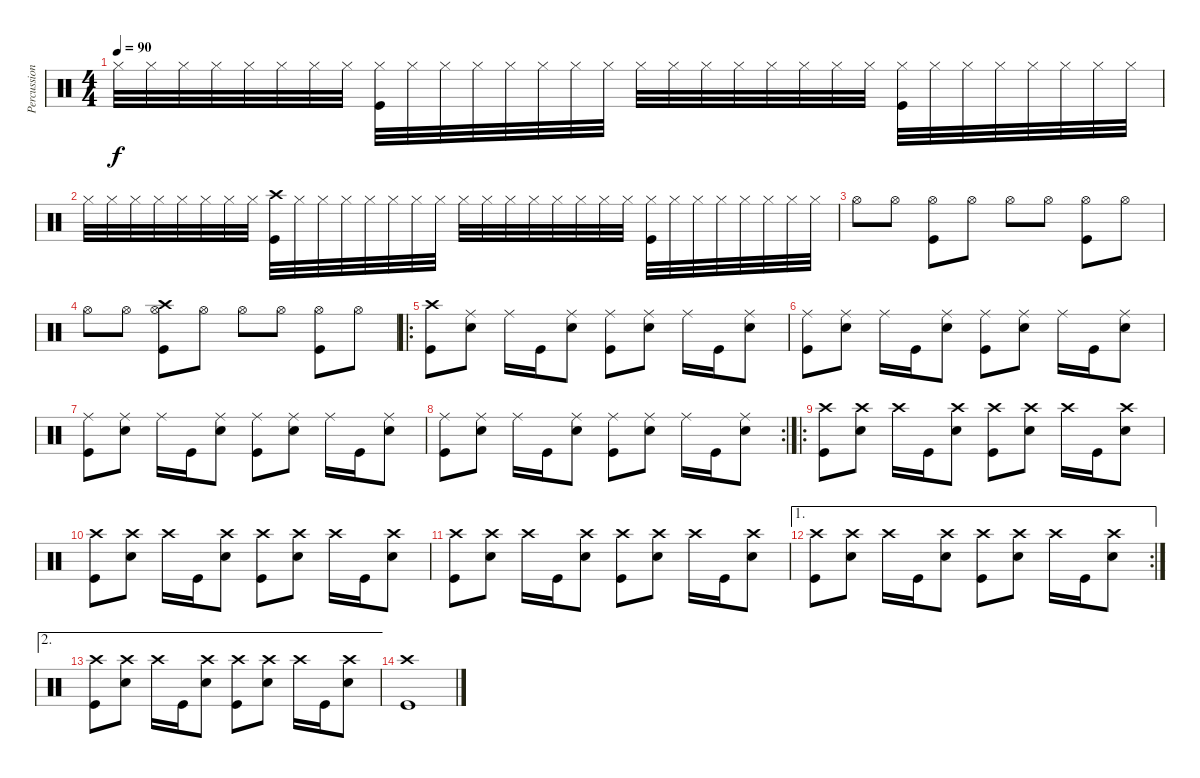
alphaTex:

\track ("Percussion" "Percussion") {instrument percussion}
\staff {score}
\articulation defaults
\ts (4 4)
\tempo 90
\clef neutral
\ks c "Hi-Hat (closed)".32{dy f} "Hi-Hat (closed)".32 "Hi-Hat (closed)".32 "Hi-Hat (closed)".32 "Hi-Hat (closed)".32 "Hi-Hat (closed)".32 "Hi-Hat (closed)".32 "Hi-Hat (closed)".32
("Hi-Hat (closed)" "Kick (hit)").32 "Hi-Hat (closed)".32 "Hi-Hat (closed)".32 "Hi-Hat (closed)".32 "Hi-Hat (closed)".32 "Hi-Hat (closed)".32 "Hi-Hat (closed)".32 "Hi-Hat (closed)".32 "Hi-Hat (closed)".32 "Hi-Hat (closed)".32 "Hi-Hat (closed)".32 "Hi-Hat (closed)".32 "Hi-Hat (closed)".32 "Hi-Hat (closed)".32 "Hi-Hat (closed)".32 "Hi-Hat (closed)".32 ("Hi-Hat (closed)" "Kick (hit)").32 "Hi-Hat (closed)".32 "Hi-Hat (closed)".32 "Hi-Hat (closed)".32 "Hi-Hat (closed)".32 "Hi-Hat (closed)".32 "Hi-Hat (closed)".32 "Hi-Hat (closed)".32 |
"Hi-Hat (closed)".32 "Hi-Hat (closed)".32 "Hi-Hat (closed)".32 "Hi-Hat (closed)".32 "Hi-Hat (closed)".32 "Hi-Hat (closed)".32 "Hi-Hat (closed)".32 "Hi-Hat (closed)".32 ("Crash high (hit)" "Kick (hit)").32 "Hi-Hat (closed)".32 "Hi-Hat (closed)".32 "Hi-Hat (closed)".32 "Hi-Hat (closed)".32 "Hi-Hat (closed)".32 "Hi-Hat (closed)".32 "Hi-Hat (closed)".32 "Hi-Hat (closed)".32 "Hi-Hat (closed)".32 "Hi-Hat (closed)".32 "Hi-Hat (closed)".32 "Hi-Hat (closed)".32 "Hi-Hat (closed)".32 "Hi-Hat (closed)".32 "Hi-Hat (closed)".32 ("Hi-Hat (closed)" "Kick (hit)").32 "Hi-Hat (closed)".32 "Hi-Hat (closed)".32 "Hi-Hat (closed)".32 "Hi-Hat (closed)".32 "Hi-Hat (closed)".32 "Hi-Hat (closed)".32 "Hi-Hat (closed)".32 |
"Hi-Hat (open)".8 "Hi-Hat (open)".8 ("Hi-Hat (open)" "Kick (hit)").8 "Hi-Hat (open)".8 "Hi-Hat (open)".8 "Hi-Hat (open)".8 ("Hi-Hat (open)" "Kick (hit)").8 "Hi-Hat (open)".8 |
"Hi-Hat (open)".8 "Hi-Hat (open)".8 ("Hi-Hat (open)" "Crash high (hit)" "Kick (hit)").8 "Hi-Hat (open)".8 "Hi-Hat (open)".8 "Hi-Hat (open)".8 ("Hi-Hat (open)" "Kick (hit)").8 "Hi-Hat (open)".8 |
\ro
("Crash high (hit)" "Kick (hit)").8 ("Ride (middle)" "Electric Snare (hit)").8 "Ride (middle)".16 "Kick (hit)".16 ("Ride (middle)" "Electric Snare (hit)").8 ("Ride (middle)" "Kick (hit)").8 ("Ride (middle)" "Electric Snare (hit)").8 "Ride (middle)".16 "Kick (hit)".16 ("Ride (middle)" "Electric Snare (hit)").8 |
("Ride (middle)" "Kick (hit)").8 ("Ride (middle)" "Electric Snare (hit)").8 "Ride (middle)".16 "Kick (hit)".16 ("Ride (middle)" "Electric Snare (hit)").8 ("Ride (middle)" "Kick (hit)").8 ("Ride (middle)" "Electric Snare (hit)").8 "Ride (middle)".16 "Kick (hit)".16 ("Ride (middle)" "Electric Snare (hit)").8 |
("Ride (middle)" "Kick (hit)").8 ("Ride (middle)" "Electric Snare (hit)").8 "Ride (middle)".16 "Kick (hit)".16 ("Ride (middle)" "Electric Snare (hit)").8 ("Ride (middle)" "Kick (hit)").8 ("Ride (middle)" "Electric Snare (hit)").8 "Ride (middle)".16 "Kick (hit)".16 ("Ride (middle)" "Electric Snare (hit)").8 |
\rc 2
("Ride (middle)" "Kick (hit)").8 ("Ride (middle)" "Electric Snare (hit)").8 "Ride (middle)".16 "Kick (hit)".16 ("Ride (middle)" "Electric Snare (hit)").8 ("Ride (middle)" "Kick (hit)").8 ("Ride (middle)" "Electric Snare (hit)").8 "Ride (middle)".16 "Kick (hit)".16 ("Ride (middle)" "Electric Snare (hit)").8 |
\ro
("Crash high (hit)" "Kick (hit)").8 ("Crash high (hit)" "Electric Snare (hit)").8 "Crash high (hit)".16 "Kick (hit)".16 ("Crash high (hit)" "Electric Snare (hit)").8 ("Crash high (hit)" "Kick (hit)").8 ("Crash high (hit)" "Electric Snare (hit)").8 "Crash high (hit)".16 "Kick (hit)".16 ("Crash high (hit)" "Electric Snare (hit)").8 |
("Crash high (hit)" "Kick (hit)").8 ("Crash high (hit)" "Electric Snare (hit)").8 "Crash high (hit)".16 "Kick (hit)".16 ("Crash high (hit)" "Electric Snare (hit)").8 ("Crash high (hit)" "Kick (hit)").8 ("Crash high (hit)" "Electric Snare (hit)").8 "Crash high (hit)".16 "Kick (hit)".16 ("Crash high (hit)" "Electric Snare (hit)").8 |
("Crash high (hit)" "Kick (hit)").8 ("Crash high (hit)" "Electric Snare (hit)").8 "Crash high (hit)".16 "Kick (hit)".16 ("Crash high (hit)" "Electric Snare (hit)").8 ("Crash high (hit)" "Kick (hit)").8 ("Crash high (hit)" "Electric Snare (hit)").8 "Crash high (hit)".16 "Kick (hit)".16 ("Crash high (hit)" "Electric Snare (hit)").8 |
\ae 1
\rc 2
("Crash high (hit)" "Kick (hit)").8 ("Crash high (hit)" "Electric Snare (hit)").8 "Crash high (hit)".16 "Kick (hit)".16 ("Crash high (hit)" "Electric Snare (hit)").8 ("Crash high (hit)" "Kick (hit)").8 ("Crash high (hit)" "Electric Snare (hit)").8 "Crash high (hit)".16 "Kick (hit)".16 ("Crash high (hit)" "Electric Snare (hit)").8 |
\ae 2
("Crash high (hit)" "Kick (hit)").8 ("Crash high (hit)" "Electric Snare (hit)").8 "Crash high (hit)".16 "Kick (hit)".16 ("Crash high (hit)" "Electric Snare (hit)").8 ("Crash high (hit)" "Kick (hit)").8 ("Crash high (hit)" "Electric Snare (hit)").8 "Crash high (hit)".16 "Kick (hit)".16 ("Crash high (hit)" "Electric Snare (hit)").8 |
("Crash high (hit)" "Kick (hit)").1
